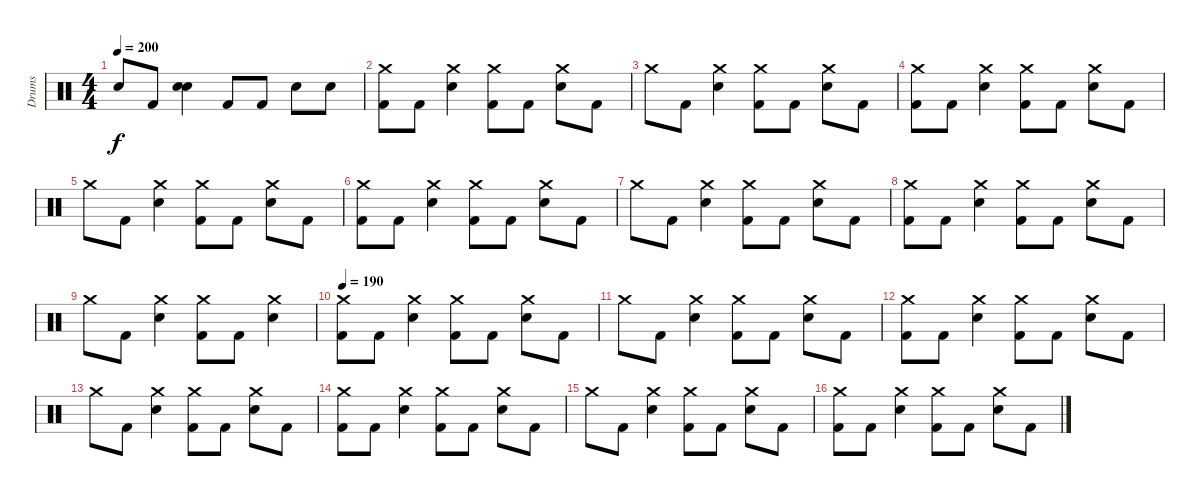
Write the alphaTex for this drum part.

\track ("Drums" "Drums") {instrument percussion}
\staff {score}
\articulation defaults
\ts (4 4)
\tempo 200
\clef neutral
\ks c "Snare (hit)"{t}.8{dy f} "Kick (hit) 2".8
("Electric Snare (hit)" "Electric Snare (hit)").4{bu 240} "Kick (hit) 2".8 "Kick (hit) 2".8 "Electric Snare (hit)".8 "Electric Snare (hit)".8 |
("Crash medium (hit)" "Kick (hit) 2").8 "Kick (hit) 2".8 ("Crash medium (hit)" "Electric Snare (hit)").4 ("Crash medium (hit)" "Kick (hit) 2").8 "Kick (hit) 2".8 ("Crash medium (hit)" "Electric Snare (hit)").8 "Kick (hit) 2".8 |
"Crash medium (hit)".8 "Kick (hit) 2".8 ("Crash medium (hit)" "Electric Snare (hit)").4 ("Crash medium (hit)" "Kick (hit) 2").8 "Kick (hit) 2".8 ("Crash medium (hit)" "Electric Snare (hit)").8 "Kick (hit) 2".8 |
("Crash medium (hit)" "Kick (hit) 2").8 "Kick (hit) 2".8 ("Crash medium (hit)" "Electric Snare (hit)").4 ("Crash medium (hit)" "Kick (hit) 2").8 "Kick (hit) 2".8 ("Crash medium (hit)" "Electric Snare (hit)").8 "Kick (hit) 2".8 |
"Crash medium (hit)".8 "Kick (hit) 2".8 ("Crash medium (hit)" "Electric Snare (hit)").4 ("Crash medium (hit)" "Kick (hit) 2").8 "Kick (hit) 2".8 ("Crash medium (hit)" "Electric Snare (hit)").8 "Kick (hit) 2".8 |
("Crash medium (hit)" "Kick (hit) 2").8 "Kick (hit) 2".8 ("Crash medium (hit)" "Electric Snare (hit)").4 ("Crash medium (hit)" "Kick (hit) 2").8 "Kick (hit) 2".8 ("Crash medium (hit)" "Electric Snare (hit)").8 "Kick (hit) 2".8 |
"Crash medium (hit)".8 "Kick (hit) 2".8 ("Crash medium (hit)" "Electric Snare (hit)").4 ("Crash medium (hit)" "Kick (hit) 2").8 "Kick (hit) 2".8 ("Crash medium (hit)" "Electric Snare (hit)").8 "Kick (hit) 2".8 |
("Crash medium (hit)" "Kick (hit) 2").8 "Kick (hit) 2".8 ("Crash medium (hit)" "Electric Snare (hit)").4 ("Crash medium (hit)" "Kick (hit) 2").8 "Kick (hit) 2".8 ("Crash medium (hit)" "Electric Snare (hit)").8 "Kick (hit) 2".8 |
"Crash medium (hit)".8 "Kick (hit) 2".8 ("Crash medium (hit)" "Electric Snare (hit)").4 ("Crash medium (hit)" "Kick (hit) 2").8 "Kick (hit) 2".8 ("Crash medium (hit)" "Electric Snare (hit)").4 |
\tempo 190
("Crash medium (hit)" "Kick (hit) 2").8 "Kick (hit) 2".8 ("Crash medium (hit)" "Electric Snare (hit)").4 ("Crash medium (hit)" "Kick (hit) 2").8 "Kick (hit) 2".8 ("Crash medium (hit)" "Electric Snare (hit)").8 "Kick (hit) 2".8 |
"Crash medium (hit)".8 "Kick (hit) 2".8 ("Crash medium (hit)" "Electric Snare (hit)").4 ("Crash medium (hit)" "Kick (hit) 2").8 "Kick (hit) 2".8 ("Crash medium (hit)" "Electric Snare (hit)").8 "Kick (hit) 2".8 |
("Crash medium (hit)" "Kick (hit) 2").8 "Kick (hit) 2".8 ("Crash medium (hit)" "Electric Snare (hit)").4 ("Crash medium (hit)" "Kick (hit) 2").8 "Kick (hit) 2".8 ("Crash medium (hit)" "Electric Snare (hit)").8 "Kick (hit) 2".8 |
"Crash medium (hit)".8 "Kick (hit) 2".8 ("Crash medium (hit)" "Electric Snare (hit)").4 ("Crash medium (hit)" "Kick (hit) 2").8 "Kick (hit) 2".8 ("Crash medium (hit)" "Electric Snare (hit)").8 "Kick (hit) 2".8 |
("Crash medium (hit)" "Kick (hit) 2").8 "Kick (hit) 2".8 ("Crash medium (hit)" "Electric Snare (hit)").4 ("Crash medium (hit)" "Kick (hit) 2").8 "Kick (hit) 2".8 ("Crash medium (hit)" "Electric Snare (hit)").8 "Kick (hit) 2".8 |
"Crash medium (hit)".8 "Kick (hit) 2".8 ("Crash medium (hit)" "Electric Snare (hit)").4 ("Crash medium (hit)" "Kick (hit) 2").8 "Kick (hit) 2".8 ("Crash medium (hit)" "Electric Snare (hit)").8 "Kick (hit) 2".8 |
("Crash medium (hit)" "Kick (hit) 2").8 "Kick (hit) 2".8 ("Crash medium (hit)" "Electric Snare (hit)").4 ("Crash medium (hit)" "Kick (hit) 2").8 "Kick (hit) 2".8 ("Crash medium (hit)" "Electric Snare (hit)").8 "Kick (hit) 2".8
